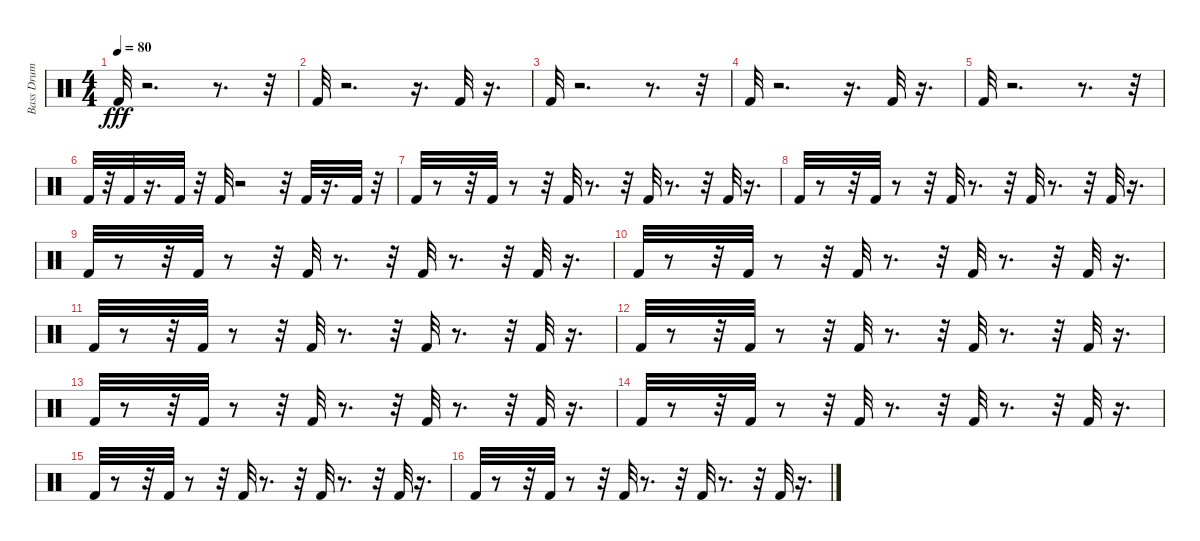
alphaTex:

\track ("Bass Drum" "Bass Drum") {instrument percussion}
\staff {score}
\articulation defaults
\ts (4 4)
\tempo 80
\clef neutral
\ks c "Kick (hit) 2".32{dy fff}
r.2{d} r.8{d} r.32 |
"Kick (hit) 2".32 r.2{d} r.16{d} "Kick (hit) 2".32 r.16{d} |
"Kick (hit) 2".32 r.2{d} r.8{d} r.32 |
"Kick (hit) 2".32 r.2{d} r.16{d} "Kick (hit) 2".32 r.16{d} |
"Kick (hit) 2".32 r.2{d} r.8{d} r.32 |
"Kick (hit) 2".32 r.32 "Kick (hit) 2".32 r.16{d} "Kick (hit) 2".32 r.32 "Kick (hit) 2".32 r.2 r.32 "Kick (hit) 2".32 r.16{d} "Kick (hit) 2".32 r.32 |
"Kick (hit) 2".32 r.8 r.32 "Kick (hit) 2".32 r.8 r.32 "Kick (hit) 2".32 r.8{d} r.32 "Kick (hit) 2".32 r.8{d} r.32 "Kick (hit) 2".32 r.16{d} |
"Kick (hit) 2".32 r.8 r.32 "Kick (hit) 2".32 r.8 r.32 "Kick (hit) 2".32 r.8{d} r.32 "Kick (hit) 2".32 r.8{d} r.32 "Kick (hit) 2".32 r.16{d} |
"Kick (hit) 2".32 r.8 r.32 "Kick (hit) 2".32 r.8 r.32 "Kick (hit) 2".32 r.8{d} r.32 "Kick (hit) 2".32 r.8{d} r.32 "Kick (hit) 2".32 r.16{d} |
"Kick (hit) 2".32 r.8 r.32 "Kick (hit) 2".32 r.8 r.32 "Kick (hit) 2".32 r.8{d} r.32 "Kick (hit) 2".32 r.8{d} r.32 "Kick (hit) 2".32 r.16{d} |
"Kick (hit) 2".32 r.8 r.32 "Kick (hit) 2".32 r.8 r.32 "Kick (hit) 2".32 r.8{d} r.32 "Kick (hit) 2".32 r.8{d} r.32 "Kick (hit) 2".32 r.16{d} |
"Kick (hit) 2".32 r.8 r.32 "Kick (hit) 2".32 r.8 r.32 "Kick (hit) 2".32 r.8{d} r.32 "Kick (hit) 2".32 r.8{d} r.32 "Kick (hit) 2".32 r.16{d} |
"Kick (hit) 2".32 r.8 r.32 "Kick (hit) 2".32 r.8 r.32 "Kick (hit) 2".32 r.8{d} r.32 "Kick (hit) 2".32 r.8{d} r.32 "Kick (hit) 2".32 r.16{d} |
"Kick (hit) 2".32 r.8 r.32 "Kick (hit) 2".32 r.8 r.32 "Kick (hit) 2".32 r.8{d} r.32 "Kick (hit) 2".32 r.8{d} r.32 "Kick (hit) 2".32 r.16{d} |
"Kick (hit) 2".32 r.8 r.32 "Kick (hit) 2".32 r.8 r.32 "Kick (hit) 2".32 r.8{d} r.32 "Kick (hit) 2".32 r.8{d} r.32 "Kick (hit) 2".32 r.16{d} |
"Kick (hit) 2".32 r.8 r.32 "Kick (hit) 2".32 r.8 r.32 "Kick (hit) 2".32 r.8{d} r.32 "Kick (hit) 2".32 r.8{d} r.32 "Kick (hit) 2".32 r.16{d}
